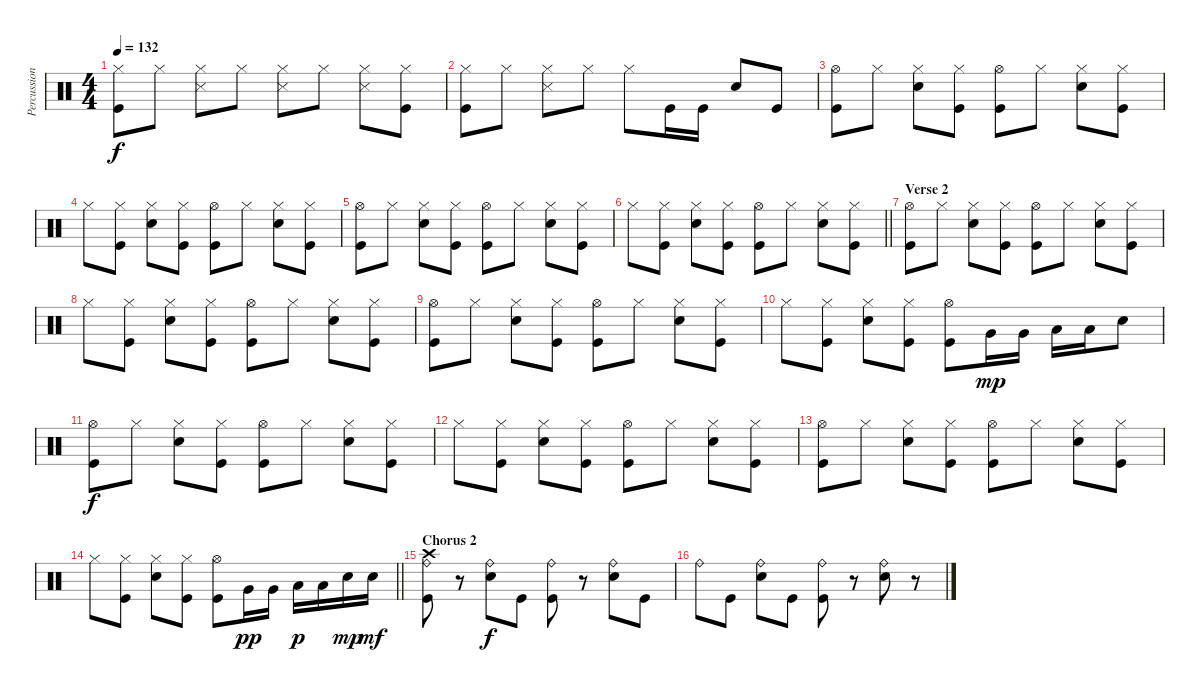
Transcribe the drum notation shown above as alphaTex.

\track ("Percussion" "Percussion") {instrument percussion}
\staff {score}
\articulation defaults
\ts (4 4)
\tempo 132
\clef neutral
\ks c
("Hi-Hat (closed)" "Kick (hit)").8{dy f} "Hi-Hat (closed)".8 ("Hi-Hat (closed)" "Snare (side stick) 3").8 "Hi-Hat (closed)".8 ("Hi-Hat (closed)" "Snare (side stick) 3").8 "Hi-Hat (closed)".8 ("Hi-Hat (closed)" "Snare (side stick) 3").8 ("Hi-Hat (closed)" "Kick (hit)").8 |
("Hi-Hat (closed)" "Kick (hit)").8 "Hi-Hat (closed)".8 ("Hi-Hat (closed)" "Snare (side stick) 3").8 "Hi-Hat (closed)".8 "Hi-Hat (closed)".8 "Kick (hit)".16 "Kick (hit)".16 "Snare (hit) 2".8 "Kick (hit)".8 |
("Hi-Hat (open)" "Kick (hit)").8 "Hi-Hat (closed)".8 ("Hi-Hat (closed)" "Snare (hit) 2").8 ("Hi-Hat (closed)" "Kick (hit)").8 ("Hi-Hat (open)" "Kick (hit)").8 "Hi-Hat (closed)".8 ("Hi-Hat (closed)" "Snare (hit) 2").8 ("Hi-Hat (closed)" "Kick (hit)").8 |
"Hi-Hat (closed)".8 ("Hi-Hat (closed)" "Kick (hit)").8 ("Hi-Hat (closed)" "Snare (hit) 2").8 ("Hi-Hat (closed)" "Kick (hit)").8 ("Hi-Hat (open)" "Kick (hit)").8 "Hi-Hat (closed)".8 ("Hi-Hat (closed)" "Snare (hit) 2").8 ("Hi-Hat (closed)" "Kick (hit)").8 |
("Hi-Hat (open)" "Kick (hit)").8 "Hi-Hat (closed)".8 ("Hi-Hat (closed)" "Snare (hit) 2").8 ("Hi-Hat (closed)" "Kick (hit)").8 ("Hi-Hat (open)" "Kick (hit)").8 "Hi-Hat (closed)".8 ("Hi-Hat (closed)" "Snare (hit) 2").8 ("Hi-Hat (closed)" "Kick (hit)").8 |
\barLineRight lightlight "Hi-Hat (closed)".8
("Hi-Hat (closed)" "Kick (hit)").8 ("Hi-Hat (closed)" "Snare (hit) 2").8 ("Hi-Hat (closed)" "Kick (hit)").8 ("Hi-Hat (open)" "Kick (hit)").8 "Hi-Hat (closed)".8 ("Hi-Hat (closed)" "Snare (hit) 2").8 ("Hi-Hat (closed)" "Kick (hit)").8 |
\section ("" "Verse 2")
("Hi-Hat (open)" "Kick (hit)").8 "Hi-Hat (closed)".8 ("Hi-Hat (closed)" "Snare (hit) 2").8 ("Hi-Hat (closed)" "Kick (hit)").8 ("Hi-Hat (open)" "Kick (hit)").8 "Hi-Hat (closed)".8 ("Hi-Hat (closed)" "Snare (hit) 2").8 ("Hi-Hat (closed)" "Kick (hit)").8 |
"Hi-Hat (closed)".8 ("Hi-Hat (closed)" "Kick (hit)").8 ("Hi-Hat (closed)" "Snare (hit) 2").8 ("Hi-Hat (closed)" "Kick (hit)").8 ("Hi-Hat (open)" "Kick (hit)").8 "Hi-Hat (closed)".8 ("Hi-Hat (closed)" "Snare (hit) 2").8 ("Hi-Hat (closed)" "Kick (hit)").8 |
("Hi-Hat (open)" "Kick (hit)").8 "Hi-Hat (closed)".8 ("Hi-Hat (closed)" "Snare (hit) 2").8 ("Hi-Hat (closed)" "Kick (hit)").8 ("Hi-Hat (open)" "Kick (hit)").8 "Hi-Hat (closed)".8 ("Hi-Hat (closed)" "Snare (hit) 2").8 ("Hi-Hat (closed)" "Kick (hit)").8 |
"Hi-Hat (closed)".8 ("Hi-Hat (closed)" "Kick (hit)").8 ("Hi-Hat (closed)" "Snare (hit) 2").8 ("Hi-Hat (closed)" "Kick (hit)").8 ("Hi-Hat (open)" "Kick (hit)").8 "Very Low Tom (hit)".16{dy mp} "Very Low Tom (hit)".16 "Low Floor Tom (hit)".16 "Low Floor Tom (hit)".16 "Snare (hit) 2".8 |
("Hi-Hat (open)" "Kick (hit)").8{dy f} "Hi-Hat (closed)".8 ("Hi-Hat (closed)" "Snare (hit) 2").8 ("Hi-Hat (closed)" "Kick (hit)").8 ("Hi-Hat (open)" "Kick (hit)").8 "Hi-Hat (closed)".8 ("Hi-Hat (closed)" "Snare (hit) 2").8 ("Hi-Hat (closed)" "Kick (hit)").8 |
"Hi-Hat (closed)".8 ("Hi-Hat (closed)" "Kick (hit)").8 ("Hi-Hat (closed)" "Snare (hit) 2").8 ("Hi-Hat (closed)" "Kick (hit)").8 ("Hi-Hat (open)" "Kick (hit)").8 "Hi-Hat (closed)".8 ("Hi-Hat (closed)" "Snare (hit) 2").8 ("Hi-Hat (closed)" "Kick (hit)").8 |
("Hi-Hat (open)" "Kick (hit)").8 "Hi-Hat (closed)".8 ("Hi-Hat (closed)" "Snare (hit) 2").8 ("Hi-Hat (closed)" "Kick (hit)").8 ("Hi-Hat (open)" "Kick (hit)").8 "Hi-Hat (closed)".8 ("Hi-Hat (closed)" "Snare (hit) 2").8 ("Hi-Hat (closed)" "Kick (hit)").8 |
\barLineRight lightlight "Hi-Hat (closed)".8
("Hi-Hat (closed)" "Kick (hit)").8 ("Hi-Hat (closed)" "Snare (hit) 2").8 ("Hi-Hat (closed)" "Kick (hit)").8 ("Hi-Hat (open)" "Kick (hit)").8 "Very Low Tom (hit)".16{dy pp} "Very Low Tom (hit)".16 "Low Floor Tom (hit)".16{dy p} "Low Floor Tom (hit)".16 "Snare (hit) 2".16{dy mp} "Snare (hit) 2".16{dy mf} |
\section ("" "Chorus 2")
("Crash high (hit)" "Ride (bell)" "Kick (hit)").8 r.8 ("Ride (bell)" "Snare (hit) 2").8{dy f} "Kick (hit)".8 ("Ride (bell)" "Kick (hit)").8 r.8 ("Ride (bell)" "Snare (hit) 2").8 "Kick (hit)".8 |
"Ride (bell)".8 "Kick (hit)".8 ("Ride (bell)" "Snare (hit) 2").8 "Kick (hit)".8 ("Ride (bell)" "Kick (hit)").8 r.8 ("Ride (bell)" "Snare (hit) 2").8 r.8
